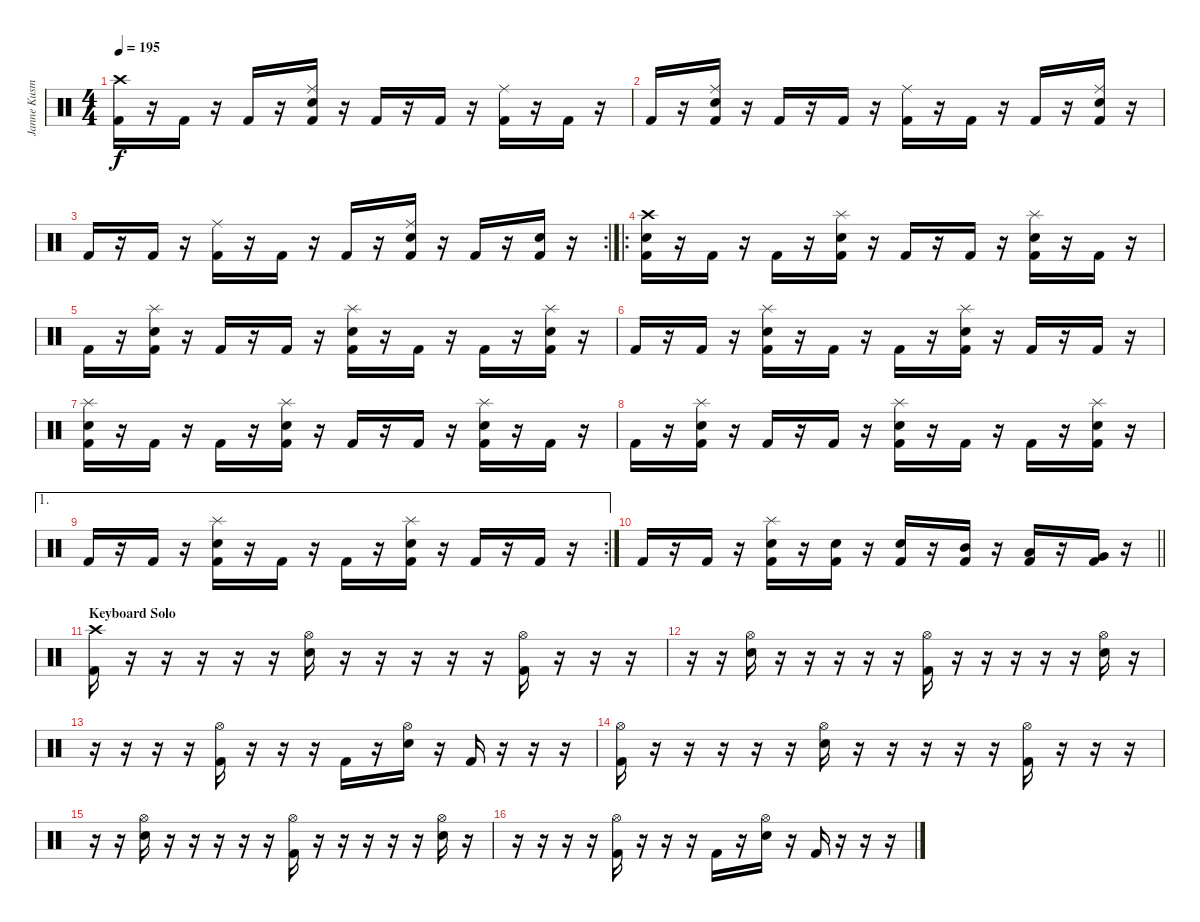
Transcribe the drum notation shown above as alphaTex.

\track ("Janne Kusmin" "Janne Kusm") {instrument percussion}
\staff {score}
\articulation defaults
\ts (4 4)
\tempo 195
\clef neutral
\ks c
("Crash high (hit)" "Kick (hit) 2").16{dy f} r.16 "Kick (hit) 2".16 r.16 "Kick (hit) 2".16 r.16 ("Ride (middle)" "Snare (hit) 2" "Kick (hit) 2").16 r.16 "Kick (hit) 2".16 r.16 "Kick (hit) 2".16 r.16 ("Ride (middle)" "Kick (hit) 2").16 r.16 "Kick (hit) 2".16 r.16 |
"Kick (hit) 2".16 r.16 ("Ride (middle)" "Snare (hit) 2" "Kick (hit) 2").16 r.16 "Kick (hit) 2".16 r.16 "Kick (hit) 2".16 r.16 ("Ride (middle)" "Kick (hit) 2").16 r.16 "Kick (hit) 2".16 r.16 "Kick (hit) 2".16 r.16 ("Ride (middle)" "Snare (hit) 2" "Kick (hit) 2").16 r.16 |
\rc 2 "Kick (hit) 2".16
r.16 "Kick (hit) 2".16 r.16 ("Ride (middle)" "Kick (hit) 2").16 r.16 "Kick (hit) 2".16 r.16 "Kick (hit) 2".16 r.16 ("Ride (middle)" "Snare (hit) 2" "Kick (hit) 2").16 r.16 "Kick (hit) 2".16 r.16 ("Snare (hit) 2" "Kick (hit) 2").16 r.16 |
\ro
("Crash high (hit)" "Snare (hit) 2" "Kick (hit) 2").16 r.16 "Kick (hit) 2".16 r.16 "Kick (hit) 2".16 r.16 ("Splash (hit)" "Snare (hit) 2" "Kick (hit) 2").16 r.16 "Kick (hit) 2".16 r.16 "Kick (hit) 2".16 r.16 ("Splash (hit)" "Snare (hit) 2" "Kick (hit) 2").16 r.16 "Kick (hit) 2".16 r.16 |
"Kick (hit) 2".16 r.16 ("Splash (hit)" "Snare (hit) 2" "Kick (hit) 2").16 r.16 "Kick (hit) 2".16 r.16 "Kick (hit) 2".16 r.16 ("Splash (hit)" "Snare (hit) 2" "Kick (hit) 2").16 r.16 "Kick (hit) 2".16 r.16 "Kick (hit) 2".16 r.16 ("Splash (hit)" "Snare (hit) 2" "Kick (hit) 2").16 r.16 |
"Kick (hit) 2".16 r.16 "Kick (hit) 2".16 r.16 ("Splash (hit)" "Snare (hit) 2" "Kick (hit) 2").16 r.16 "Kick (hit) 2".16 r.16 "Kick (hit) 2".16 r.16 ("Splash (hit)" "Snare (hit) 2" "Kick (hit) 2").16 r.16 "Kick (hit) 2".16 r.16 "Kick (hit) 2".16 r.16 |
("Splash (hit)" "Snare (hit) 2" "Kick (hit) 2").16 r.16 "Kick (hit) 2".16 r.16 "Kick (hit) 2".16 r.16 ("Splash (hit)" "Snare (hit) 2" "Kick (hit) 2").16 r.16 "Kick (hit) 2".16 r.16 "Kick (hit) 2".16 r.16 ("Splash (hit)" "Snare (hit) 2" "Kick (hit) 2").16 r.16 "Kick (hit) 2".16 r.16 |
"Kick (hit) 2".16 r.16 ("Splash (hit)" "Snare (hit) 2" "Kick (hit) 2").16 r.16 "Kick (hit) 2".16 r.16 "Kick (hit) 2".16 r.16 ("Splash (hit)" "Snare (hit) 2" "Kick (hit) 2").16 r.16 "Kick (hit) 2".16 r.16 "Kick (hit) 2".16 r.16 ("Splash (hit)" "Snare (hit) 2" "Kick (hit) 2").16 r.16 |
\ae 1
\rc 2 "Kick (hit) 2".16
r.16 "Kick (hit) 2".16 r.16 ("Splash (hit)" "Snare (hit) 2" "Kick (hit) 2").16 r.16 "Kick (hit) 2".16 r.16 "Kick (hit) 2".16 r.16 ("Splash (hit)" "Snare (hit) 2" "Kick (hit) 2").16 r.16 "Kick (hit) 2".16 r.16 "Kick (hit) 2".16 r.16 |
\barLineRight lightlight "Kick (hit) 2".16
r.16 "Kick (hit) 2".16 r.16 ("Splash (hit)" "Snare (hit) 2" "Kick (hit) 2").16 r.16 ("Snare (hit) 2" "Kick (hit) 2").16 r.16 ("Snare (hit) 2" "Kick (hit) 2").16 r.16 ("Mid Tom (hit)" "Kick (hit) 2").16 r.16 ("Low Tom (hit)" "Kick (hit) 2").16 r.16 ("Very Low Tom (hit)" "Kick (hit) 2").16 r.16 |
\section ("" "Keyboard Solo")
("Crash high (hit)" "Kick (hit) 2").16 r.16 r.16 r.16 r.16 r.16 ("Hi-Hat (open)" "Snare (hit) 2").16 r.16 r.16 r.16 r.16 r.16 ("Hi-Hat (open)" "Kick (hit) 2").16 r.16 r.16 r.16 |
r.16 r.16 ("Hi-Hat (open)" "Snare (hit) 2").16 r.16 r.16 r.16 r.16 r.16 ("Hi-Hat (open)" "Kick (hit) 2").16 r.16 r.16 r.16 r.16 r.16 ("Hi-Hat (open)" "Snare (hit) 2").16 r.16 |
r.16 r.16 r.16 r.16 ("Hi-Hat (open)" "Kick (hit) 2").16 r.16 r.16 r.16 "Kick (hit) 2".16 r.16 ("Hi-Hat (open)" "Snare (hit) 2").16 r.16 "Kick (hit) 2".16 r.16 r.16 r.16 |
("Hi-Hat (open)" "Kick (hit) 2").16 r.16 r.16 r.16 r.16 r.16 ("Hi-Hat (open)" "Snare (hit) 2").16 r.16 r.16 r.16 r.16 r.16 ("Hi-Hat (open)" "Kick (hit) 2").16 r.16 r.16 r.16 |
r.16 r.16 ("Hi-Hat (open)" "Snare (hit) 2").16 r.16 r.16 r.16 r.16 r.16 ("Hi-Hat (open)" "Kick (hit) 2").16 r.16 r.16 r.16 r.16 r.16 ("Hi-Hat (open)" "Snare (hit) 2").16 r.16 |
r.16 r.16 r.16 r.16 ("Hi-Hat (open)" "Kick (hit) 2").16 r.16 r.16 r.16 "Kick (hit) 2".16 r.16 ("Hi-Hat (open)" "Snare (hit) 2").16 r.16 "Kick (hit) 2".16 r.16 r.16 r.16
